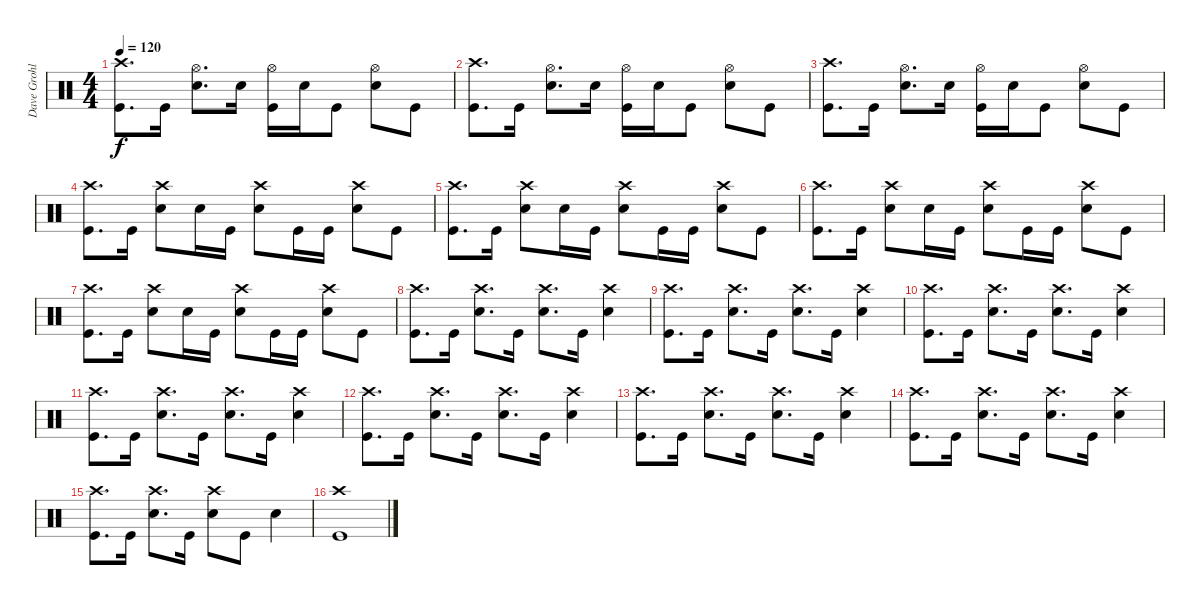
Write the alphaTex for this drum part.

\track ("Dave Grohl - Drums" "Dave Grohl") {instrument percussion}
\staff {score}
\articulation defaults
\ts (4 4)
\tempo 120
\clef neutral
\ks c
("Crash high (hit)" "Kick (hit)").8{d dy f} "Kick (hit)".16 ("Hi-Hat (open)" "Snare (hit) 2").8{d} "Snare (hit) 2".16 ("Hi-Hat (open)" "Kick (hit)").16 "Snare (hit) 2".16 "Kick (hit)".8 ("Hi-Hat (open)" "Snare (hit) 2").8 "Kick (hit)".8 |
("Crash high (hit)" "Kick (hit)").8{d} "Kick (hit)".16 ("Hi-Hat (open)" "Snare (hit) 2").8{d} "Snare (hit) 2".16 ("Hi-Hat (open)" "Kick (hit)").16 "Snare (hit) 2".16 "Kick (hit)".8 ("Hi-Hat (open)" "Snare (hit) 2").8 "Kick (hit)".8 |
("Crash high (hit)" "Kick (hit)").8{d} "Kick (hit)".16 ("Hi-Hat (open)" "Snare (hit) 2").8{d} "Snare (hit) 2".16 ("Hi-Hat (open)" "Kick (hit)").16 "Snare (hit) 2".16 "Kick (hit)".8 ("Hi-Hat (open)" "Snare (hit) 2").8 "Kick (hit)".8 |
("Crash high (hit)" "Kick (hit)").8{d} "Kick (hit)".16 ("Crash high (hit)" "Snare (hit) 2").8 "Snare (hit) 2".16 "Kick (hit)".16 ("Crash high (hit)" "Snare (hit) 2").8 "Kick (hit)".16 "Kick (hit)".16 ("Crash high (hit)" "Snare (hit) 2").8 "Kick (hit)".8 |
("Crash high (hit)" "Kick (hit)").8{d} "Kick (hit)".16 ("Crash high (hit)" "Snare (hit) 2").8 "Snare (hit) 2".16 "Kick (hit)".16 ("Crash high (hit)" "Snare (hit) 2").8 "Kick (hit)".16 "Kick (hit)".16 ("Crash high (hit)" "Snare (hit) 2").8 "Kick (hit)".8 |
("Crash high (hit)" "Kick (hit)").8{d} "Kick (hit)".16 ("Crash high (hit)" "Snare (hit) 2").8 "Snare (hit) 2".16 "Kick (hit)".16 ("Crash high (hit)" "Snare (hit) 2").8 "Kick (hit)".16 "Kick (hit)".16 ("Crash high (hit)" "Snare (hit) 2").8 "Kick (hit)".8 |
("Crash high (hit)" "Kick (hit)").8{d} "Kick (hit)".16 ("Crash high (hit)" "Snare (hit) 2").8 "Snare (hit) 2".16 "Kick (hit)".16 ("Crash high (hit)" "Snare (hit) 2").8 "Kick (hit)".16 "Kick (hit)".16 ("Crash high (hit)" "Snare (hit) 2").8 "Kick (hit)".8 |
("Crash high (hit)" "Kick (hit)").8{d} "Kick (hit)".16 ("Crash high (hit)" "Snare (hit) 2").8{d} "Kick (hit)".16 ("Crash high (hit)" "Snare (hit) 2").8{d} "Kick (hit)".16 ("Crash high (hit)" "Snare (hit) 2").4 |
("Crash high (hit)" "Kick (hit)").8{d} "Kick (hit)".16 ("Crash high (hit)" "Snare (hit) 2").8{d} "Kick (hit)".16 ("Crash high (hit)" "Snare (hit) 2").8{d} "Kick (hit)".16 ("Crash high (hit)" "Snare (hit) 2").4 |
("Crash high (hit)" "Kick (hit)").8{d} "Kick (hit)".16 ("Crash high (hit)" "Snare (hit) 2").8{d} "Kick (hit)".16 ("Crash high (hit)" "Snare (hit) 2").8{d} "Kick (hit)".16 ("Crash high (hit)" "Snare (hit) 2").4 |
("Crash high (hit)" "Kick (hit)").8{d} "Kick (hit)".16 ("Crash high (hit)" "Snare (hit) 2").8{d} "Kick (hit)".16 ("Crash high (hit)" "Snare (hit) 2").8{d} "Kick (hit)".16 ("Crash high (hit)" "Snare (hit) 2").4 |
("Crash high (hit)" "Kick (hit)").8{d} "Kick (hit)".16 ("Crash high (hit)" "Snare (hit) 2").8{d} "Kick (hit)".16 ("Crash high (hit)" "Snare (hit) 2").8{d} "Kick (hit)".16 ("Crash high (hit)" "Snare (hit) 2").4 |
("Crash high (hit)" "Kick (hit)").8{d} "Kick (hit)".16 ("Crash high (hit)" "Snare (hit) 2").8{d} "Kick (hit)".16 ("Crash high (hit)" "Snare (hit) 2").8{d} "Kick (hit)".16 ("Crash high (hit)" "Snare (hit) 2").4 |
("Crash high (hit)" "Kick (hit)").8{d} "Kick (hit)".16 ("Crash high (hit)" "Snare (hit) 2").8{d} "Kick (hit)".16 ("Crash high (hit)" "Snare (hit) 2").8{d} "Kick (hit)".16 ("Crash high (hit)" "Snare (hit) 2").4 |
("Crash high (hit)" "Kick (hit)").8{d} "Kick (hit)".16 ("Crash high (hit)" "Snare (hit) 2").8{d} "Kick (hit)".16 ("Crash high (hit)" "Snare (hit) 2").8 "Kick (hit)".8 "Snare (hit) 2".4 |
("Crash high (hit)" "Kick (hit)").1
